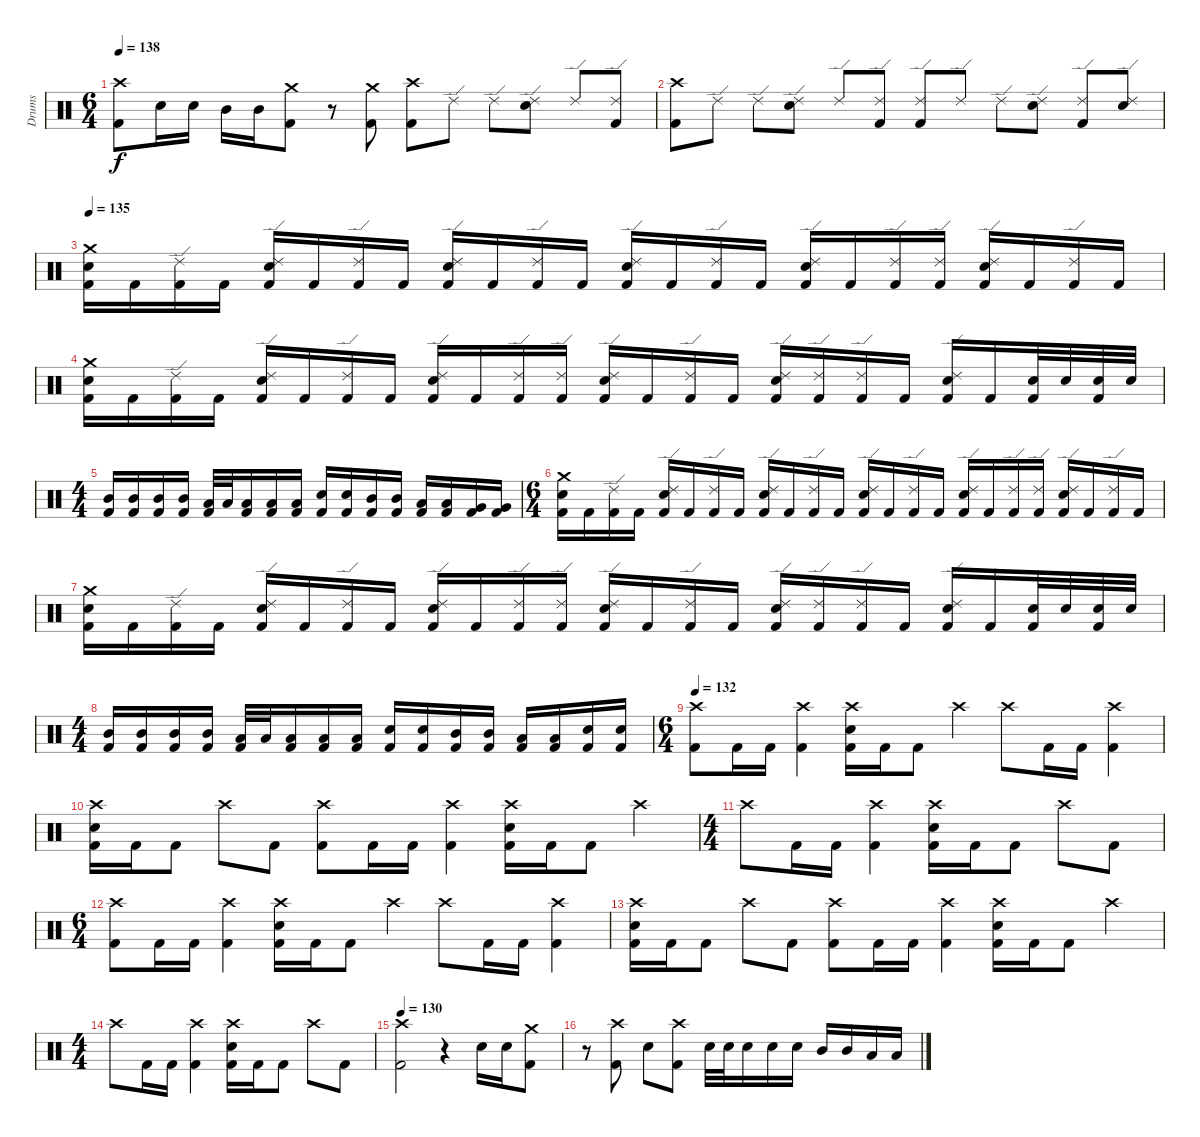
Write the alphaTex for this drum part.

\track ("Drums" "Drums") {instrument percussion}
\staff {score}
\articulation defaults
\ts (6 4)
\tempo 138
\clef neutral
\ks c
("Crash high (hit)" "Kick (hit) 2").8{dy f} "Electric Snare (hit)".16 "Electric Snare (hit)".16 "Mid Tom (hit)".16 "Mid Tom (hit)".16 ("Crash medium (hit)" "Kick (hit) 2").8 r.8 ("Crash medium (hit)" "Kick (hit) 2").8 ("Crash high (hit)" "Kick (hit) 2").8 "Ride (edge) 2".8 "Ride (edge) 2".8 ("Ride (edge) 2" "Electric Snare (hit)").8 "Ride (edge) 2".8 ("Ride (edge) 2" "Kick (hit) 2").8 |
("Crash high (hit)" "Kick (hit) 2").8 "Ride (edge) 2".8 "Ride (edge) 2".8 ("Ride (edge) 2" "Electric Snare (hit)").8 "Ride (edge) 2".8 ("Ride (edge) 2" "Kick (hit) 2").8 ("Ride (edge) 2" "Kick (hit) 2").8 "Ride (edge) 2".8 "Ride (edge) 2".8 ("Ride (edge) 2" "Electric Snare (hit)").8 ("Ride (edge) 2" "Kick (hit) 2").8 ("Ride (edge) 2" "Electric Snare (hit)").8 |
\tempo 135
("Crash medium (hit)" "Electric Snare (hit)" "Kick (hit) 2").16 "Kick (hit) 2".16 ("Ride (edge) 2" "Kick (hit) 2").16 "Kick (hit) 2".16 ("Ride (edge) 2" "Electric Snare (hit)" "Kick (hit) 2").16 "Kick (hit) 2".16 ("Ride (edge) 2" "Kick (hit) 2").16 "Kick (hit) 2".16 ("Ride (edge) 2" "Electric Snare (hit)" "Kick (hit) 2").16 "Kick (hit) 2".16 ("Ride (edge) 2" "Kick (hit) 2").16 "Kick (hit) 2".16 ("Ride (edge) 2" "Electric Snare (hit)" "Kick (hit) 2").16 "Kick (hit) 2".16 ("Ride (edge) 2" "Kick (hit) 2").16 "Kick (hit) 2".16 ("Ride (edge) 2" "Electric Snare (hit)" "Kick (hit) 2").16 "Kick (hit) 2".16 ("Ride (edge) 2" "Kick (hit) 2").16 ("Ride (edge) 2" "Kick (hit) 2").16 ("Ride (edge) 2" "Electric Snare (hit)" "Kick (hit) 2").16 "Kick (hit) 2".16 ("Ride (edge) 2" "Kick (hit) 2").16 "Kick (hit) 2".16 |
("Crash medium (hit)" "Electric Snare (hit)" "Kick (hit) 2").16 "Kick (hit) 2".16 ("Ride (edge) 2" "Kick (hit) 2").16 "Kick (hit) 2".16 ("Ride (edge) 2" "Electric Snare (hit)" "Kick (hit) 2").16 "Kick (hit) 2".16 ("Ride (edge) 2" "Kick (hit) 2").16 "Kick (hit) 2".16 ("Ride (edge) 2" "Electric Snare (hit)" "Kick (hit) 2").16 "Kick (hit) 2".16 ("Ride (edge) 2" "Kick (hit) 2").16 ("Ride (edge) 2" "Kick (hit) 2").16 ("Ride (edge) 2" "Electric Snare (hit)" "Kick (hit) 2").16 "Kick (hit) 2".16 ("Ride (edge) 2" "Kick (hit) 2").16 "Kick (hit) 2".16 ("Ride (edge) 2" "Electric Snare (hit)" "Kick (hit) 2").16 ("Ride (edge) 2" "Kick (hit) 2").16 ("Ride (edge) 2" "Kick (hit) 2").16 "Kick (hit) 2".16 ("Ride (edge) 2" "Electric Snare (hit)" "Kick (hit) 2").16 "Kick (hit) 2".16 ("Electric Snare (hit)" "Kick (hit) 2").32 "Electric Snare (hit)".32 ("Electric Snare (hit)" "Kick (hit) 2").32 "Electric Snare (hit)".32 |
\ts (4 4)
("Mid Tom (hit)" "Kick (hit) 2").16 ("Mid Tom (hit)" "Kick (hit) 2").16 ("Mid Tom (hit)" "Kick (hit) 2").16 ("Mid Tom (hit)" "Kick (hit) 2").16 ("Low Tom (hit)" "Kick (hit) 2").32 "Low Tom (hit)".32 ("Low Tom (hit)" "Kick (hit) 2").16 ("Low Tom (hit)" "Kick (hit) 2").16 ("Low Tom (hit)" "Kick (hit) 2").16 ("Electric Snare (hit)" "Kick (hit) 2").16 ("Electric Snare (hit)" "Kick (hit) 2").16 ("Mid Tom (hit)" "Kick (hit) 2").16 ("Mid Tom (hit)" "Kick (hit) 2").16 ("Low Tom (hit)" "Kick (hit) 2").16 ("Low Tom (hit)" "Kick (hit) 2").16 ("Very Low Tom (hit)" "Kick (hit) 2").16 ("Very Low Tom (hit)" "Kick (hit) 2").16 |
\ts (6 4)
("Crash medium (hit)" "Electric Snare (hit)" "Kick (hit) 2").16 "Kick (hit) 2".16 ("Ride (edge) 2" "Kick (hit) 2").16 "Kick (hit) 2".16 ("Ride (edge) 2" "Electric Snare (hit)" "Kick (hit) 2").16 "Kick (hit) 2".16 ("Ride (edge) 2" "Kick (hit) 2").16 "Kick (hit) 2".16 ("Ride (edge) 2" "Electric Snare (hit)" "Kick (hit) 2").16 "Kick (hit) 2".16 ("Ride (edge) 2" "Kick (hit) 2").16 "Kick (hit) 2".16 ("Ride (edge) 2" "Electric Snare (hit)" "Kick (hit) 2").16 "Kick (hit) 2".16 ("Ride (edge) 2" "Kick (hit) 2").16 "Kick (hit) 2".16 ("Ride (edge) 2" "Electric Snare (hit)" "Kick (hit) 2").16 "Kick (hit) 2".16 ("Ride (edge) 2" "Kick (hit) 2").16 ("Ride (edge) 2" "Kick (hit) 2").16 ("Ride (edge) 2" "Electric Snare (hit)" "Kick (hit) 2").16 "Kick (hit) 2".16 ("Ride (edge) 2" "Kick (hit) 2").16 "Kick (hit) 2".16 |
("Crash medium (hit)" "Electric Snare (hit)" "Kick (hit) 2").16 "Kick (hit) 2".16 ("Ride (edge) 2" "Kick (hit) 2").16 "Kick (hit) 2".16 ("Ride (edge) 2" "Electric Snare (hit)" "Kick (hit) 2").16 "Kick (hit) 2".16 ("Ride (edge) 2" "Kick (hit) 2").16 "Kick (hit) 2".16 ("Ride (edge) 2" "Electric Snare (hit)" "Kick (hit) 2").16 "Kick (hit) 2".16 ("Ride (edge) 2" "Kick (hit) 2").16 ("Ride (edge) 2" "Kick (hit) 2").16 ("Ride (edge) 2" "Electric Snare (hit)" "Kick (hit) 2").16 "Kick (hit) 2".16 ("Ride (edge) 2" "Kick (hit) 2").16 "Kick (hit) 2".16 ("Ride (edge) 2" "Electric Snare (hit)" "Kick (hit) 2").16 ("Ride (edge) 2" "Kick (hit) 2").16 ("Ride (edge) 2" "Kick (hit) 2").16 "Kick (hit) 2".16 ("Ride (edge) 2" "Electric Snare (hit)" "Kick (hit) 2").16 "Kick (hit) 2".16 ("Electric Snare (hit)" "Kick (hit) 2").32 "Electric Snare (hit)".32 ("Electric Snare (hit)" "Kick (hit) 2").32 "Electric Snare (hit)".32 |
\ts (4 4)
("Mid Tom (hit)" "Kick (hit) 2").16 ("Mid Tom (hit)" "Kick (hit) 2").16 ("Mid Tom (hit)" "Kick (hit) 2").16 ("Mid Tom (hit)" "Kick (hit) 2").16 ("Low Tom (hit)" "Kick (hit) 2").32 "Low Tom (hit)".32 ("Low Tom (hit)" "Kick (hit) 2").16 ("Low Tom (hit)" "Kick (hit) 2").16 ("Low Tom (hit)" "Kick (hit) 2").16 ("Electric Snare (hit)" "Kick (hit) 2").16 ("Electric Snare (hit)" "Kick (hit) 2").16 ("Mid Tom (hit)" "Kick (hit) 2").16 ("Mid Tom (hit)" "Kick (hit) 2").16 ("Low Tom (hit)" "Kick (hit) 2").16 ("Low Tom (hit)" "Kick (hit) 2").16 ("Electric Snare (hit)" "Kick (hit) 2").16 ("Electric Snare (hit)" "Kick (hit) 2").16 |
\ts (6 4)
\tempo 132
("Crash high (hit)" "Kick (hit) 2").8 "Kick (hit) 2".16 "Kick (hit) 2".16 ("Crash high (hit)" "Kick (hit) 2").4 ("Crash high (hit)" "Electric Snare (hit)" "Kick (hit) 2").16 "Kick (hit) 2".16 "Kick (hit) 2".8 "Crash high (hit)".4 "Crash high (hit)".8 "Kick (hit) 2".16 "Kick (hit) 2".16 ("Crash high (hit)" "Kick (hit) 2").4 |
("Crash high (hit)" "Electric Snare (hit)" "Kick (hit) 2").16 "Kick (hit) 2".16 "Kick (hit) 2".8 "Crash high (hit)".8 "Kick (hit) 2".8 ("Crash high (hit)" "Kick (hit) 2").8 "Kick (hit) 2".16 "Kick (hit) 2".16 ("Crash high (hit)" "Kick (hit) 2").4 ("Crash high (hit)" "Electric Snare (hit)" "Kick (hit) 2").16 "Kick (hit) 2".16 "Kick (hit) 2".8 "Crash high (hit)".4 |
\ts (4 4)
"Crash high (hit)".8 "Kick (hit) 2".16 "Kick (hit) 2".16 ("Crash high (hit)" "Kick (hit) 2").4 ("Crash high (hit)" "Electric Snare (hit)" "Kick (hit) 2").16 "Kick (hit) 2".16 "Kick (hit) 2".8 "Crash high (hit)".8 "Kick (hit) 2".8 |
\ts (6 4)
("Crash high (hit)" "Kick (hit) 2").8 "Kick (hit) 2".16 "Kick (hit) 2".16 ("Crash high (hit)" "Kick (hit) 2").4 ("Crash high (hit)" "Electric Snare (hit)" "Kick (hit) 2").16 "Kick (hit) 2".16 "Kick (hit) 2".8 "Crash high (hit)".4 "Crash high (hit)".8 "Kick (hit) 2".16 "Kick (hit) 2".16 ("Crash high (hit)" "Kick (hit) 2").4 |
("Crash high (hit)" "Electric Snare (hit)" "Kick (hit) 2").16 "Kick (hit) 2".16 "Kick (hit) 2".8 "Crash high (hit)".8 "Kick (hit) 2".8 ("Crash high (hit)" "Kick (hit) 2").8 "Kick (hit) 2".16 "Kick (hit) 2".16 ("Crash high (hit)" "Kick (hit) 2").4 ("Crash high (hit)" "Electric Snare (hit)" "Kick (hit) 2").16 "Kick (hit) 2".16 "Kick (hit) 2".8 "Crash high (hit)".4 |
\ts (4 4)
"Crash high (hit)".8 "Kick (hit) 2".16 "Kick (hit) 2".16 ("Crash high (hit)" "Kick (hit) 2").4 ("Crash high (hit)" "Electric Snare (hit)" "Kick (hit) 2").16 "Kick (hit) 2".16 "Kick (hit) 2".8 "Crash high (hit)".8 "Kick (hit) 2".8 |
\tempo 130
("Crash high (hit)" "Kick (hit) 2").2 r.4 "Electric Snare (hit)".16 "Electric Snare (hit)".16 ("Crash medium (hit)" "Kick (hit) 2").8 |
r.8 ("Crash high (hit)" "Kick (hit) 2").8 "Electric Snare (hit)".8 ("Crash high (hit)" "Kick (hit) 2").8 "Electric Snare (hit)".32 "Electric Snare (hit)".32 "Electric Snare (hit)".16 "Electric Snare (hit)".16 "Electric Snare (hit)".16 "Mid Tom (hit)".16 "Mid Tom (hit)".16 "Low Tom (hit)".16 "Low Tom (hit)".16
